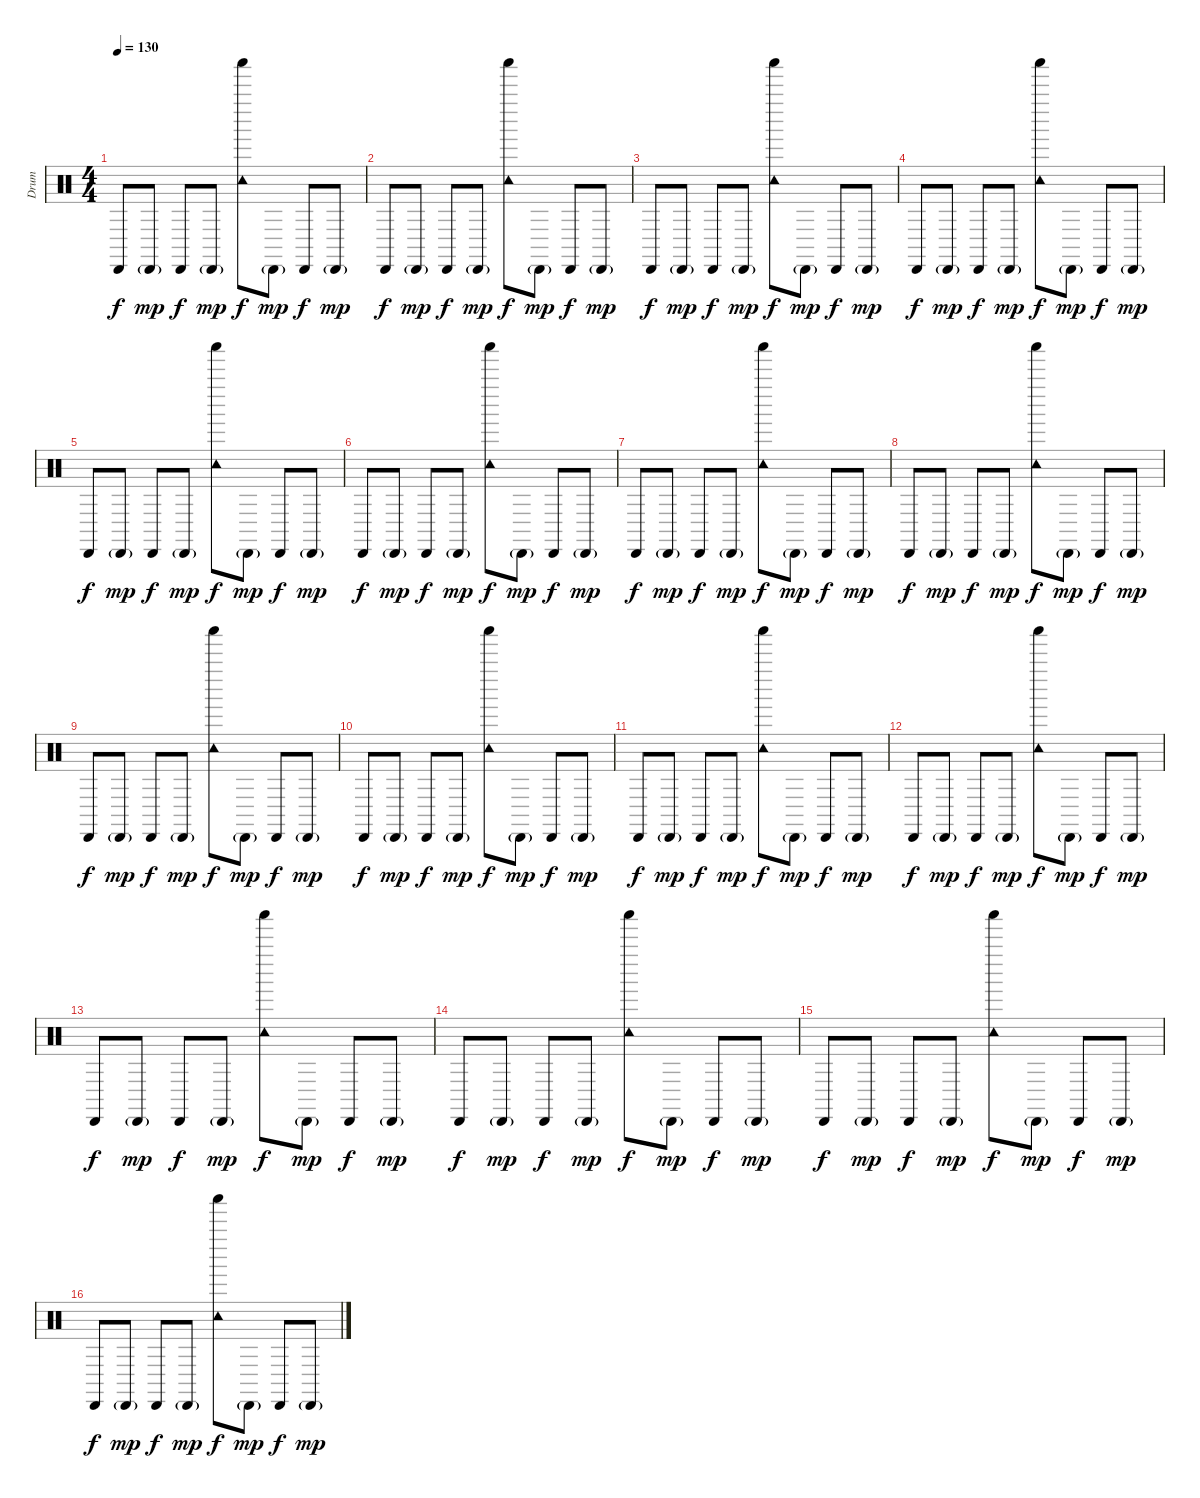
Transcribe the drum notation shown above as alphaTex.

\track ("Drum" "Drum") {instrument percussion}
\staff {score}
\articulation defaults
\ts (4 4)
\tempo 130
\clef neutral
\ks c "Cabasa (hit)".8{dy f} "Cabasa (hit)"{g}.8{dy mp} "Cabasa (hit)".8{dy f} "Cabasa (hit)"{g}.8{dy mp}
("Shaker (hit)" "Tambourine (hit)").8{dy f} "Cabasa (hit)"{g}.8{dy mp} "Cabasa (hit)".8{dy f} "Cabasa (hit)"{g}.8{dy mp} |
"Cabasa (hit)".8{dy f} "Cabasa (hit)"{g}.8{dy mp} "Cabasa (hit)".8{dy f} "Cabasa (hit)"{g}.8{dy mp} ("Shaker (hit)" "Tambourine (hit)").8{dy f} "Cabasa (hit)"{g}.8{dy mp} "Cabasa (hit)".8{dy f} "Cabasa (hit)"{g}.8{dy mp} |
"Cabasa (hit)".8{dy f} "Cabasa (hit)"{g}.8{dy mp} "Cabasa (hit)".8{dy f} "Cabasa (hit)"{g}.8{dy mp} ("Shaker (hit)" "Tambourine (hit)").8{dy f} "Cabasa (hit)"{g}.8{dy mp} "Cabasa (hit)".8{dy f} "Cabasa (hit)"{g}.8{dy mp} |
"Cabasa (hit)".8{dy f} "Cabasa (hit)"{g}.8{dy mp} "Cabasa (hit)".8{dy f} "Cabasa (hit)"{g}.8{dy mp} ("Shaker (hit)" "Tambourine (hit)").8{dy f} "Cabasa (hit)"{g}.8{dy mp} "Cabasa (hit)".8{dy f} "Cabasa (hit)"{g}.8{dy mp} |
"Cabasa (hit)".8{dy f} "Cabasa (hit)"{g}.8{dy mp} "Cabasa (hit)".8{dy f} "Cabasa (hit)"{g}.8{dy mp} ("Shaker (hit)" "Tambourine (hit)").8{dy f} "Cabasa (hit)"{g}.8{dy mp} "Cabasa (hit)".8{dy f} "Cabasa (hit)"{g}.8{dy mp} |
"Cabasa (hit)".8{dy f} "Cabasa (hit)"{g}.8{dy mp} "Cabasa (hit)".8{dy f} "Cabasa (hit)"{g}.8{dy mp} ("Shaker (hit)" "Tambourine (hit)").8{dy f} "Cabasa (hit)"{g}.8{dy mp} "Cabasa (hit)".8{dy f} "Cabasa (hit)"{g}.8{dy mp} |
"Cabasa (hit)".8{dy f} "Cabasa (hit)"{g}.8{dy mp} "Cabasa (hit)".8{dy f} "Cabasa (hit)"{g}.8{dy mp} ("Shaker (hit)" "Tambourine (hit)").8{dy f} "Cabasa (hit)"{g}.8{dy mp} "Cabasa (hit)".8{dy f} "Cabasa (hit)"{g}.8{dy mp} |
"Cabasa (hit)".8{dy f} "Cabasa (hit)"{g}.8{dy mp} "Cabasa (hit)".8{dy f} "Cabasa (hit)"{g}.8{dy mp} ("Shaker (hit)" "Tambourine (hit)").8{dy f} "Cabasa (hit)"{g}.8{dy mp} "Cabasa (hit)".8{dy f} "Cabasa (hit)"{g}.8{dy mp} |
"Cabasa (hit)".8{dy f} "Cabasa (hit)"{g}.8{dy mp} "Cabasa (hit)".8{dy f} "Cabasa (hit)"{g}.8{dy mp} ("Shaker (hit)" "Tambourine (hit)").8{dy f} "Cabasa (hit)"{g}.8{dy mp} "Cabasa (hit)".8{dy f} "Cabasa (hit)"{g}.8{dy mp} |
"Cabasa (hit)".8{dy f} "Cabasa (hit)"{g}.8{dy mp} "Cabasa (hit)".8{dy f} "Cabasa (hit)"{g}.8{dy mp} ("Shaker (hit)" "Tambourine (hit)").8{dy f} "Cabasa (hit)"{g}.8{dy mp} "Cabasa (hit)".8{dy f} "Cabasa (hit)"{g}.8{dy mp} |
"Cabasa (hit)".8{dy f} "Cabasa (hit)"{g}.8{dy mp} "Cabasa (hit)".8{dy f} "Cabasa (hit)"{g}.8{dy mp} ("Shaker (hit)" "Tambourine (hit)").8{dy f} "Cabasa (hit)"{g}.8{dy mp} "Cabasa (hit)".8{dy f} "Cabasa (hit)"{g}.8{dy mp} |
"Cabasa (hit)".8{dy f} "Cabasa (hit)"{g}.8{dy mp} "Cabasa (hit)".8{dy f} "Cabasa (hit)"{g}.8{dy mp} ("Shaker (hit)" "Tambourine (hit)").8{dy f} "Cabasa (hit)"{g}.8{dy mp} "Cabasa (hit)".8{dy f} "Cabasa (hit)"{g}.8{dy mp} |
"Cabasa (hit)".8{dy f} "Cabasa (hit)"{g}.8{dy mp} "Cabasa (hit)".8{dy f} "Cabasa (hit)"{g}.8{dy mp} ("Shaker (hit)" "Tambourine (hit)").8{dy f} "Cabasa (hit)"{g}.8{dy mp} "Cabasa (hit)".8{dy f} "Cabasa (hit)"{g}.8{dy mp} |
"Cabasa (hit)".8{dy f} "Cabasa (hit)"{g}.8{dy mp} "Cabasa (hit)".8{dy f} "Cabasa (hit)"{g}.8{dy mp} ("Shaker (hit)" "Tambourine (hit)").8{dy f} "Cabasa (hit)"{g}.8{dy mp} "Cabasa (hit)".8{dy f} "Cabasa (hit)"{g}.8{dy mp} |
"Cabasa (hit)".8{dy f} "Cabasa (hit)"{g}.8{dy mp} "Cabasa (hit)".8{dy f} "Cabasa (hit)"{g}.8{dy mp} ("Shaker (hit)" "Tambourine (hit)").8{dy f} "Cabasa (hit)"{g}.8{dy mp} "Cabasa (hit)".8{dy f} "Cabasa (hit)"{g}.8{dy mp} |
"Cabasa (hit)".8{dy f} "Cabasa (hit)"{g}.8{dy mp} "Cabasa (hit)".8{dy f} "Cabasa (hit)"{g}.8{dy mp} ("Shaker (hit)" "Tambourine (hit)").8{dy f} "Cabasa (hit)"{g}.8{dy mp} "Cabasa (hit)".8{dy f} "Cabasa (hit)"{g}.8{dy mp}
